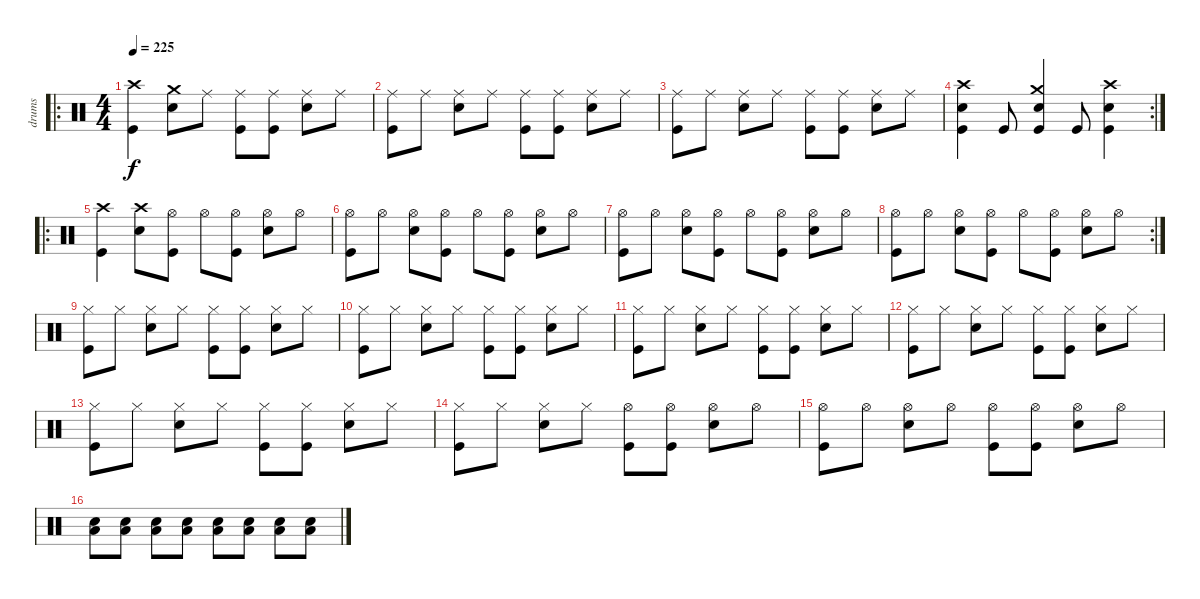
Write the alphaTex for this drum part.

\track ("drums" "drums") {instrument percussion}
\staff {score}
\articulation defaults
\ro
\ts (4 4)
\tempo 225
\clef neutral
\ks c
("Crash high (hit)" "Kick (hit)").4{dy f} ("Crash medium (hit)" "Snare (hit) 2").8 "Ride (middle)".8 ("Ride (middle)" "Kick (hit)").8 ("Ride (middle)" "Kick (hit)").8 ("Ride (middle)" "Snare (hit) 2").8 "Ride (middle)".8 |
("Ride (middle)" "Kick (hit)").8 "Ride (middle)".8 ("Ride (middle)" "Snare (hit) 2").8 "Ride (middle)".8 ("Ride (middle)" "Kick (hit)").8 ("Ride (middle)" "Kick (hit)").8 ("Ride (middle)" "Snare (hit) 2").8 "Ride (middle)".8 |
("Ride (middle)" "Kick (hit)").8 "Ride (middle)".8 ("Ride (middle)" "Snare (hit) 2").8 "Ride (middle)".8 ("Ride (middle)" "Kick (hit)").8 ("Ride (middle)" "Kick (hit)").8 ("Ride (middle)" "Snare (hit) 2").8 "Ride (middle)".8 |
\rc 2
("Crash high (hit)" "Snare (hit) 2" "Kick (hit)").4 "Kick (hit)".8 ("Crash medium (hit)" "Snare (hit) 2" "Kick (hit)").4 "Kick (hit)".8 ("Crash high (hit)" "Snare (hit) 2" "Kick (hit)").4 |
\ro
("Crash high (hit)" "Kick (hit)").4 ("Crash high (hit)" "Snare (hit) 2").8 ("Hi-Hat (open)" "Kick (hit)").8 "Hi-Hat (open)".8 ("Hi-Hat (open)" "Kick (hit)").8 ("Hi-Hat (open)" "Snare (hit) 2").8 "Hi-Hat (open)".8 |
("Hi-Hat (open)" "Kick (hit)").8 "Hi-Hat (open)".8 ("Hi-Hat (open)" "Snare (hit) 2").8 ("Hi-Hat (open)" "Kick (hit)").8 "Hi-Hat (open)".8 ("Hi-Hat (open)" "Kick (hit)").8 ("Hi-Hat (open)" "Snare (hit) 2").8 "Hi-Hat (open)".8 |
("Hi-Hat (open)" "Kick (hit)").8 "Hi-Hat (open)".8 ("Hi-Hat (open)" "Snare (hit) 2").8 ("Hi-Hat (open)" "Kick (hit)").8 "Hi-Hat (open)".8 ("Hi-Hat (open)" "Kick (hit)").8 ("Hi-Hat (open)" "Snare (hit) 2").8 "Hi-Hat (open)".8 |
\rc 2
("Hi-Hat (open)" "Kick (hit)").8 "Hi-Hat (open)".8 ("Hi-Hat (open)" "Snare (hit) 2").8 ("Hi-Hat (open)" "Kick (hit)").8 "Hi-Hat (open)".8 ("Hi-Hat (open)" "Kick (hit)").8 ("Hi-Hat (open)" "Snare (hit) 2").8 "Hi-Hat (open)".8 |
("Hi-Hat (closed)" "Kick (hit)").8 "Hi-Hat (closed)".8 ("Hi-Hat (closed)" "Snare (hit) 2").8 "Hi-Hat (closed)".8 ("Hi-Hat (closed)" "Kick (hit)").8 ("Hi-Hat (closed)" "Kick (hit)").8 ("Hi-Hat (closed)" "Snare (hit) 2").8 "Hi-Hat (closed)".8 |
("Hi-Hat (closed)" "Kick (hit)").8 "Hi-Hat (closed)".8 ("Hi-Hat (closed)" "Snare (hit) 2").8 "Hi-Hat (closed)".8 ("Hi-Hat (closed)" "Kick (hit)").8 ("Hi-Hat (closed)" "Kick (hit)").8 ("Hi-Hat (closed)" "Snare (hit) 2").8 "Hi-Hat (closed)".8 |
("Hi-Hat (closed)" "Kick (hit)").8 "Hi-Hat (closed)".8 ("Hi-Hat (closed)" "Snare (hit) 2").8 "Hi-Hat (closed)".8 ("Hi-Hat (closed)" "Kick (hit)").8 ("Hi-Hat (closed)" "Kick (hit)").8 ("Hi-Hat (closed)" "Snare (hit) 2").8 "Hi-Hat (closed)".8 |
("Hi-Hat (closed)" "Kick (hit)").8 "Hi-Hat (closed)".8 ("Hi-Hat (closed)" "Snare (hit) 2").8 "Hi-Hat (closed)".8 ("Hi-Hat (closed)" "Kick (hit)").8 ("Hi-Hat (closed)" "Kick (hit)").8 ("Hi-Hat (closed)" "Snare (hit) 2").8 "Hi-Hat (closed)".8 |
("Hi-Hat (closed)" "Kick (hit)").8 "Hi-Hat (closed)".8 ("Hi-Hat (closed)" "Snare (hit) 2").8 "Hi-Hat (closed)".8 ("Hi-Hat (closed)" "Kick (hit)").8 ("Hi-Hat (closed)" "Kick (hit)").8 ("Hi-Hat (closed)" "Snare (hit) 2").8 "Hi-Hat (closed)".8 |
("Hi-Hat (closed)" "Kick (hit)").8 "Hi-Hat (closed)".8 ("Hi-Hat (closed)" "Snare (hit) 2").8 "Hi-Hat (closed)".8 ("Hi-Hat (open)" "Kick (hit)").8 ("Hi-Hat (open)" "Kick (hit)").8 ("Hi-Hat (open)" "Snare (hit) 2").8 "Hi-Hat (open)".8 |
("Hi-Hat (open)" "Kick (hit)").8 "Hi-Hat (open)".8 ("Hi-Hat (open)" "Snare (hit) 2").8 "Hi-Hat (open)".8 ("Hi-Hat (open)" "Kick (hit)").8 ("Hi-Hat (open)" "Kick (hit)").8 ("Hi-Hat (open)" "Snare (hit) 2").8 "Hi-Hat (open)".8 |
("Snare (hit) 2" "Low Tom (hit)").8 ("Snare (hit) 2" "Low Tom (hit)").8 ("Snare (hit) 2" "Low Tom (hit)").8 ("Snare (hit) 2" "Low Tom (hit)").8 ("Snare (hit) 2" "Low Tom (hit)").8 ("Snare (hit) 2" "Low Tom (hit)").8 ("Snare (hit) 2" "Low Tom (hit)").8 ("Snare (hit) 2" "Low Tom (hit)").8
